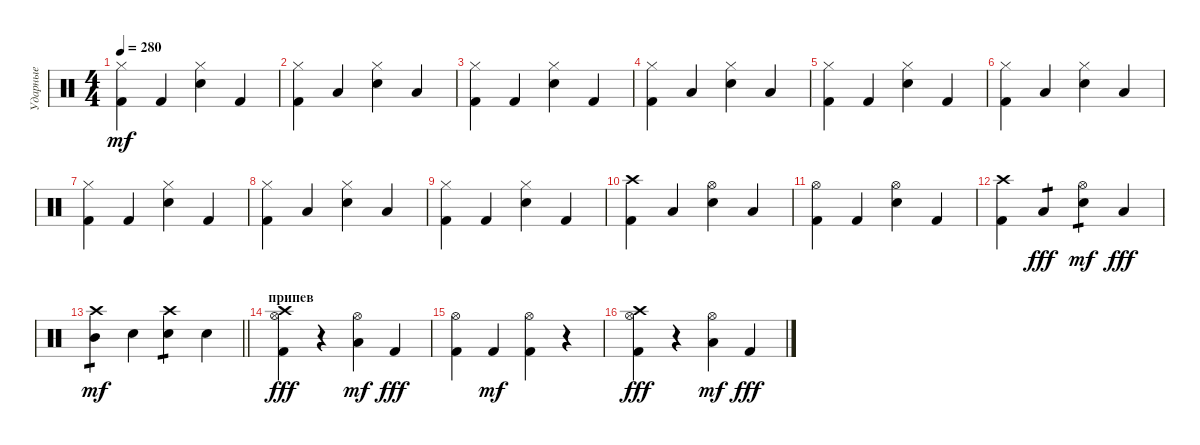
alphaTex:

\track ("Ударные" "Ударные") {instrument percussion}
\staff {score}
\articulation defaults
\ts (4 4)
\tempo 280
\clef neutral
\ks c
("Kick (hit) 2" "Hi-Hat (closed)").4{dy mf} "Kick (hit) 2".4 ("Snare (hit) 2" "Hi-Hat (closed)").4 "Kick (hit) 2".4 |
("Kick (hit) 2" "Hi-Hat (closed)").4 "Low Floor Tom (hit)".4 ("Snare (hit) 2" "Hi-Hat (closed)").4 "Low Floor Tom (hit)".4 |
("Kick (hit) 2" "Hi-Hat (closed)").4 "Kick (hit) 2".4 ("Snare (hit) 2" "Hi-Hat (closed)").4 "Kick (hit) 2".4 |
("Kick (hit) 2" "Hi-Hat (closed)").4 "Low Floor Tom (hit)".4 ("Snare (hit) 2" "Hi-Hat (closed)").4 "Low Floor Tom (hit)".4 |
("Kick (hit) 2" "Hi-Hat (closed)").4 "Kick (hit) 2".4 ("Snare (hit) 2" "Hi-Hat (closed)").4 "Kick (hit) 2".4 |
("Kick (hit) 2" "Hi-Hat (closed)").4 "Low Floor Tom (hit)".4 ("Snare (hit) 2" "Hi-Hat (closed)").4 "Low Floor Tom (hit)".4 |
("Kick (hit) 2" "Hi-Hat (closed)").4 "Kick (hit) 2".4 ("Snare (hit) 2" "Hi-Hat (closed)").4 "Kick (hit) 2".4 |
("Kick (hit) 2" "Hi-Hat (closed)").4 "Low Floor Tom (hit)".4 ("Snare (hit) 2" "Hi-Hat (closed)").4 "Low Floor Tom (hit)".4 |
("Kick (hit) 2" "Hi-Hat (closed)").4 "Kick (hit) 2".4 ("Snare (hit) 2" "Hi-Hat (closed)").4 "Kick (hit) 2".4 |
("Kick (hit) 2" "Crash high (hit)").4 "Low Floor Tom (hit)".4 ("Snare (hit) 2" "Hi-Hat (open)").4 "Low Floor Tom (hit)".4 |
("Kick (hit) 2" "Hi-Hat (open)").4 "Kick (hit) 2".4 ("Snare (hit) 2" "Hi-Hat (open)").4 "Kick (hit) 2".4 |
("Kick (hit) 2" "Crash high (hit)").4 "Low Tom (hit)".4{tp 1 dy fff} ("Snare (hit) 2" "Hi-Hat (open)").4{tp 1 dy mf} "Low Tom (hit)".4{dy fff} |
\barLineRight lightlight
("Mid Tom (hit)" "Crash high (hit)").4{tp 1 dy mf} "Snare (hit) 2".4 ("Snare (hit) 2" "Crash high (hit)").4{tp 1} "Snare (hit) 2".4 |
\section ("" "припев")
("Hi-Hat (open)" "Crash high (hit)" "Kick (hit) 2").4{dy fff} r.4 ("Hi-Hat (open)" "Low Tom (hit)").4{dy mf} "Kick (hit) 2".4{dy fff} |
("Hi-Hat (open)" "Kick (hit) 2").4 "Kick (hit) 2".4{dy mf} ("Hi-Hat (open)" "Kick (hit) 2").4 r.4 |
("Hi-Hat (open)" "Crash high (hit)" "Kick (hit) 2").4{dy fff} r.4 ("Hi-Hat (open)" "Low Tom (hit)").4{dy mf} "Kick (hit) 2".4{dy fff}
